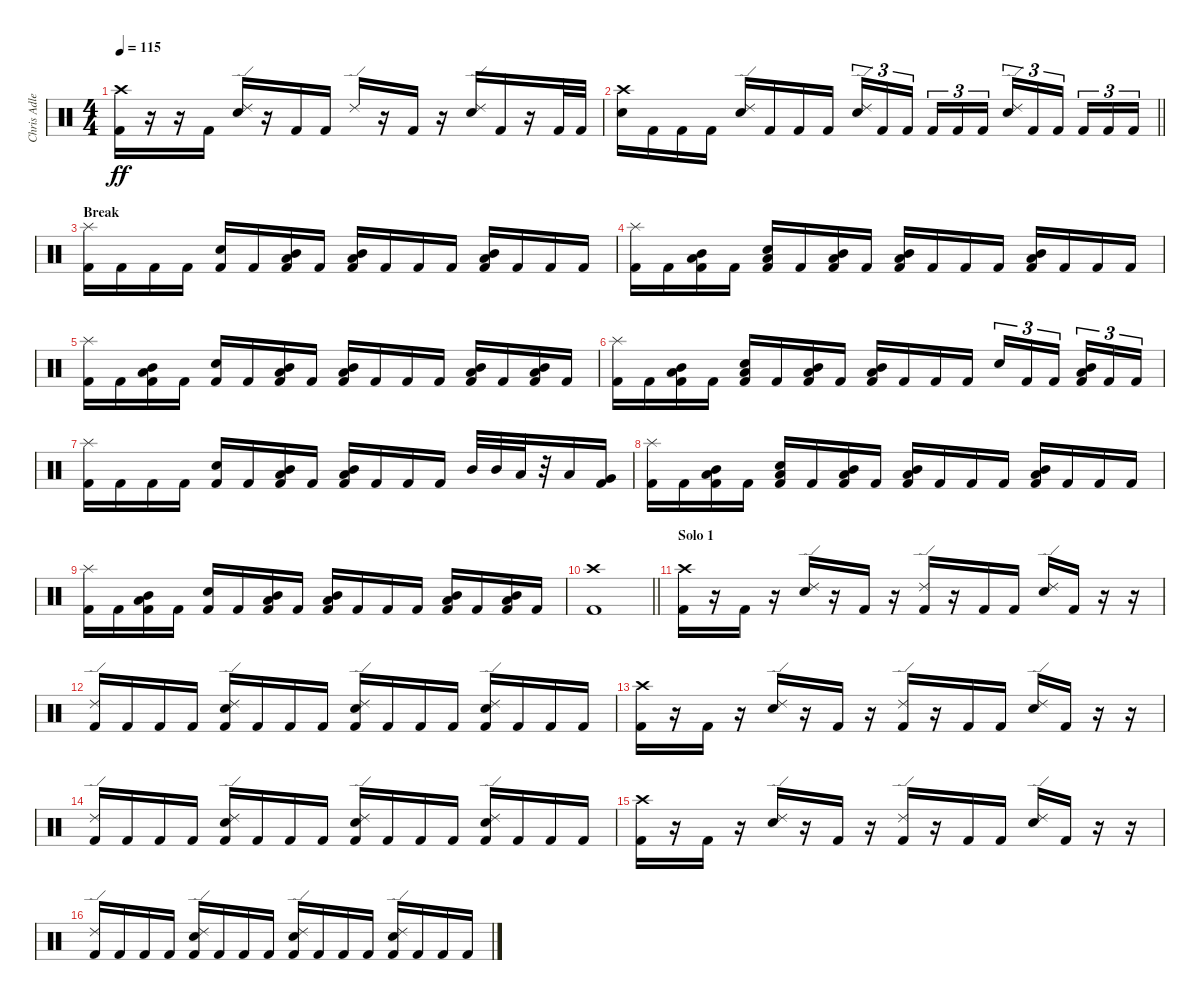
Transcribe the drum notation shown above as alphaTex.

\track ("Chris Adler" "Chris Adle") {instrument percussion}
\staff {score}
\articulation defaults
\ts (4 4)
\tempo 115
\clef neutral
\ks c
("Crash high (hit)" "Kick (hit) 2").16{dy ff} r.16 r.16 "Kick (hit) 2".16 ("Ride (edge) 2" "Snare (hit) 2").16 r.16 "Kick (hit) 2".16 "Kick (hit) 2".16 "Ride (edge) 2".16 r.16 "Kick (hit) 2".16 r.16 ("Ride (edge) 2" "Snare (hit) 2").16 "Kick (hit) 2".16 r.16 "Kick (hit) 2".32 "Kick (hit) 2".32 |
\barLineRight lightlight
("Crash high (hit)" "Snare (hit) 2").16 "Kick (hit) 2".16 "Kick (hit) 2".16 "Kick (hit) 2".16 ("Ride (edge) 2" "Snare (hit) 2").16 "Kick (hit) 2".16 "Kick (hit) 2".16 "Kick (hit) 2".16 ("Ride (edge) 2" "Snare (hit) 2").16{tu (3 2)} "Kick (hit) 2".16{tu (3 2)} "Kick (hit) 2".16{tu (3 2) beam splitsecondary} "Kick (hit) 2".16{tu (3 2)} "Kick (hit) 2".16{tu (3 2)} "Kick (hit) 2".16{tu (3 2)} ("Ride (edge) 2" "Snare (hit) 2").16{tu (3 2)} "Kick (hit) 2".16{tu (3 2)} "Kick (hit) 2".16{tu (3 2) beam splitsecondary} "Kick (hit) 2".16{tu (3 2)} "Kick (hit) 2".16{tu (3 2)} "Kick (hit) 2".16{tu (3 2)} |
\section ("" "Break")
("Splash (hit)" "Kick (hit) 2").16 "Kick (hit) 2".16 "Kick (hit) 2".16 "Kick (hit) 2".16 ("Snare (hit) 2" "Kick (hit) 2").16 "Kick (hit) 2".16 ("Low Tom (hit)" "Mid Tom (hit)" "Kick (hit) 2").16 "Kick (hit) 2".16 ("Low Tom (hit)" "Mid Tom (hit)" "Kick (hit) 2").16 "Kick (hit) 2".16 "Kick (hit) 2".16 "Kick (hit) 2".16 ("Low Tom (hit)" "Mid Tom (hit)" "Kick (hit) 2").16 "Kick (hit) 2".16 "Kick (hit) 2".16 "Kick (hit) 2".16 |
("Splash (hit)" "Kick (hit) 2").16 "Kick (hit) 2".16 ("Low Tom (hit)" "Mid Tom (hit)" "Kick (hit) 2").16 "Kick (hit) 2".16 ("Low Tom (hit)" "Snare (hit) 2" "Kick (hit) 2").16 "Kick (hit) 2".16 ("Mid Tom (hit)" "Low Tom (hit)" "Kick (hit) 2").16 "Kick (hit) 2".16 ("Low Tom (hit)" "Mid Tom (hit)" "Kick (hit) 2").16 "Kick (hit) 2".16 "Kick (hit) 2".16 "Kick (hit) 2".16 ("Low Tom (hit)" "Mid Tom (hit)" "Kick (hit) 2").16 "Kick (hit) 2".16 "Kick (hit) 2".16 "Kick (hit) 2".16 |
("Splash (hit)" "Kick (hit) 2").16 "Kick (hit) 2".16 ("Low Tom (hit)" "Mid Tom (hit)" "Kick (hit) 2").16 "Kick (hit) 2".16 ("Snare (hit) 2" "Kick (hit) 2").16 "Kick (hit) 2".16 ("Mid Tom (hit)" "Low Tom (hit)" "Kick (hit) 2").16 "Kick (hit) 2".16 ("Low Tom (hit)" "Mid Tom (hit)" "Kick (hit) 2").16 "Kick (hit) 2".16 "Kick (hit) 2".16 "Kick (hit) 2".16 ("Low Tom (hit)" "Mid Tom (hit)" "Kick (hit) 2").16 "Kick (hit) 2".16 ("Low Tom (hit)" "Mid Tom (hit)" "Kick (hit) 2").16 "Kick (hit) 2".16 |
("Splash (hit)" "Kick (hit) 2").16 "Kick (hit) 2".16 ("Low Tom (hit)" "Mid Tom (hit)" "Kick (hit) 2").16 "Kick (hit) 2".16 ("Low Tom (hit)" "Snare (hit) 2" "Kick (hit) 2").16 "Kick (hit) 2".16 ("Mid Tom (hit)" "Low Tom (hit)" "Kick (hit) 2").16 "Kick (hit) 2".16 ("Low Tom (hit)" "Mid Tom (hit)" "Kick (hit) 2").16 "Kick (hit) 2".16 "Kick (hit) 2".16 "Kick (hit) 2".16 "Snare (hit) 2".16{tu (3 2)} "Kick (hit) 2".16{tu (3 2)} "Kick (hit) 2".16{tu (3 2) beam splitsecondary} ("Mid Tom (hit)" "Low Tom (hit)" "Kick (hit) 2").16{tu (3 2)} "Kick (hit) 2".16{tu (3 2)} "Kick (hit) 2".16{tu (3 2)} |
("Splash (hit)" "Kick (hit) 2").16 "Kick (hit) 2".16 "Kick (hit) 2".16 "Kick (hit) 2".16 ("Snare (hit) 2" "Kick (hit) 2").16 "Kick (hit) 2".16 ("Low Tom (hit)" "Mid Tom (hit)" "Kick (hit) 2").16 "Kick (hit) 2".16 ("Low Tom (hit)" "Mid Tom (hit)" "Kick (hit) 2").16 "Kick (hit) 2".16 "Kick (hit) 2".16 "Kick (hit) 2".16 "Mid Tom (hit)".32 "Mid Tom (hit)".32 "Low Tom (hit)".32 r.32 "Low Tom (hit)".16 ("Very Low Tom (hit)" "Kick (hit) 2").16 |
("Splash (hit)" "Kick (hit) 2").16 "Kick (hit) 2".16 ("Low Tom (hit)" "Mid Tom (hit)" "Kick (hit) 2").16 "Kick (hit) 2".16 ("Low Tom (hit)" "Snare (hit) 2" "Kick (hit) 2").16 "Kick (hit) 2".16 ("Mid Tom (hit)" "Low Tom (hit)" "Kick (hit) 2").16 "Kick (hit) 2".16 ("Low Tom (hit)" "Mid Tom (hit)" "Kick (hit) 2").16 "Kick (hit) 2".16 "Kick (hit) 2".16 "Kick (hit) 2".16 ("Low Tom (hit)" "Mid Tom (hit)" "Kick (hit) 2").16 "Kick (hit) 2".16 "Kick (hit) 2".16 "Kick (hit) 2".16 |
("Splash (hit)" "Kick (hit) 2").16 "Kick (hit) 2".16 ("Low Tom (hit)" "Mid Tom (hit)" "Kick (hit) 2").16 "Kick (hit) 2".16 ("Snare (hit) 2" "Kick (hit) 2").16 "Kick (hit) 2".16 ("Mid Tom (hit)" "Low Tom (hit)" "Kick (hit) 2").16 "Kick (hit) 2".16 ("Low Tom (hit)" "Mid Tom (hit)" "Kick (hit) 2").16 "Kick (hit) 2".16 "Kick (hit) 2".16 "Kick (hit) 2".16 ("Low Tom (hit)" "Mid Tom (hit)" "Kick (hit) 2").16 "Kick (hit) 2".16 ("Low Tom (hit)" "Mid Tom (hit)" "Kick (hit) 2").16 "Kick (hit) 2".16 |
\barLineRight lightlight
("Crash high (hit)" "Kick (hit) 2").1 |
\section ("" "Solo 1")
("Crash high (hit)" "Kick (hit) 2").16 r.16 "Kick (hit) 2".16 r.16 ("Ride (edge) 2" "Snare (hit) 2").16 r.16 "Kick (hit) 2".16 r.16 ("Ride (edge) 2" "Kick (hit) 2").16 r.16 "Kick (hit) 2".16 "Kick (hit) 2".16 ("Ride (edge) 2" "Snare (hit) 2").16 "Kick (hit) 2".16 r.16 r.16 |
("Ride (edge) 2" "Kick (hit) 2").16 "Kick (hit) 2".16 "Kick (hit) 2".16 "Kick (hit) 2".16 ("Ride (edge) 2" "Snare (hit) 2" "Kick (hit) 2").16 "Kick (hit) 2".16 "Kick (hit) 2".16 "Kick (hit) 2".16 ("Ride (edge) 2" "Snare (hit) 2" "Kick (hit) 2").16 "Kick (hit) 2".16 "Kick (hit) 2".16 "Kick (hit) 2".16 ("Ride (edge) 2" "Snare (hit) 2" "Kick (hit) 2").16 "Kick (hit) 2".16 "Kick (hit) 2".16 "Kick (hit) 2".16 |
("Crash high (hit)" "Kick (hit) 2").16 r.16 "Kick (hit) 2".16 r.16 ("Ride (edge) 2" "Snare (hit) 2").16 r.16 "Kick (hit) 2".16 r.16 ("Ride (edge) 2" "Kick (hit) 2").16 r.16 "Kick (hit) 2".16 "Kick (hit) 2".16 ("Ride (edge) 2" "Snare (hit) 2").16 "Kick (hit) 2".16 r.16 r.16 |
("Ride (edge) 2" "Kick (hit) 2").16 "Kick (hit) 2".16 "Kick (hit) 2".16 "Kick (hit) 2".16 ("Ride (edge) 2" "Snare (hit) 2" "Kick (hit) 2").16 "Kick (hit) 2".16 "Kick (hit) 2".16 "Kick (hit) 2".16 ("Ride (edge) 2" "Snare (hit) 2" "Kick (hit) 2").16 "Kick (hit) 2".16 "Kick (hit) 2".16 "Kick (hit) 2".16 ("Ride (edge) 2" "Snare (hit) 2" "Kick (hit) 2").16 "Kick (hit) 2".16 "Kick (hit) 2".16 "Kick (hit) 2".16 |
("Crash high (hit)" "Kick (hit) 2").16 r.16 "Kick (hit) 2".16 r.16 ("Ride (edge) 2" "Snare (hit) 2").16 r.16 "Kick (hit) 2".16 r.16 ("Ride (edge) 2" "Kick (hit) 2").16 r.16 "Kick (hit) 2".16 "Kick (hit) 2".16 ("Ride (edge) 2" "Snare (hit) 2").16 "Kick (hit) 2".16 r.16 r.16 |
("Ride (edge) 2" "Kick (hit) 2").16 "Kick (hit) 2".16 "Kick (hit) 2".16 "Kick (hit) 2".16 ("Ride (edge) 2" "Snare (hit) 2" "Kick (hit) 2").16 "Kick (hit) 2".16 "Kick (hit) 2".16 "Kick (hit) 2".16 ("Ride (edge) 2" "Snare (hit) 2" "Kick (hit) 2").16 "Kick (hit) 2".16 "Kick (hit) 2".16 "Kick (hit) 2".16 ("Ride (edge) 2" "Snare (hit) 2" "Kick (hit) 2").16 "Kick (hit) 2".16 "Kick (hit) 2".16 "Kick (hit) 2".16
